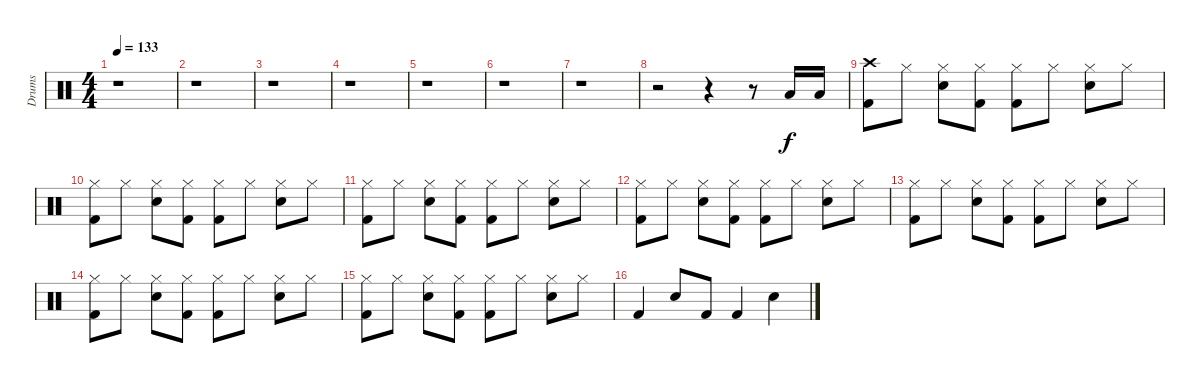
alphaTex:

\track ("Drums" "Drums") {instrument percussion}
\staff {score}
\articulation defaults
\ts (4 4)
\tempo 133
\clef neutral
\ks c
r.1{dy f} |
r.1 |
r.1 |
r.1 |
r.1 |
r.1 |
r.1 |
r.2 r.4 r.8 "Low Tom (hit)".16 "Low Tom (hit)".16 |
("Kick (hit) 2" "Crash high (hit)").8 "Hi-Hat (closed)".8 ("Snare (hit) 2" "Hi-Hat (closed)").8 ("Kick (hit) 2" "Hi-Hat (closed)").8 ("Kick (hit) 2" "Hi-Hat (closed)").8 "Hi-Hat (closed)".8 ("Snare (hit) 2" "Hi-Hat (closed)").8 "Hi-Hat (closed)".8 |
("Kick (hit) 2" "Hi-Hat (closed)").8 "Hi-Hat (closed)".8 ("Snare (hit) 2" "Hi-Hat (closed)").8 ("Kick (hit) 2" "Hi-Hat (closed)").8 ("Kick (hit) 2" "Hi-Hat (closed)").8 "Hi-Hat (closed)".8 ("Snare (hit) 2" "Hi-Hat (closed)").8 "Hi-Hat (closed)".8 |
("Kick (hit) 2" "Hi-Hat (closed)").8 "Hi-Hat (closed)".8 ("Snare (hit) 2" "Hi-Hat (closed)").8 ("Kick (hit) 2" "Hi-Hat (closed)").8 ("Kick (hit) 2" "Hi-Hat (closed)").8 "Hi-Hat (closed)".8 ("Snare (hit) 2" "Hi-Hat (closed)").8 "Hi-Hat (closed)".8 |
("Kick (hit) 2" "Hi-Hat (closed)").8 "Hi-Hat (closed)".8 ("Snare (hit) 2" "Hi-Hat (closed)").8 ("Kick (hit) 2" "Hi-Hat (closed)").8 ("Kick (hit) 2" "Hi-Hat (closed)").8 "Hi-Hat (closed)".8 ("Snare (hit) 2" "Hi-Hat (closed)").8 "Hi-Hat (closed)".8 |
("Kick (hit) 2" "Hi-Hat (closed)").8 "Hi-Hat (closed)".8 ("Snare (hit) 2" "Hi-Hat (closed)").8 ("Kick (hit) 2" "Hi-Hat (closed)").8 ("Kick (hit) 2" "Hi-Hat (closed)").8 "Hi-Hat (closed)".8 ("Snare (hit) 2" "Hi-Hat (closed)").8 "Hi-Hat (closed)".8 |
("Kick (hit) 2" "Hi-Hat (closed)").8 "Hi-Hat (closed)".8 ("Snare (hit) 2" "Hi-Hat (closed)").8 ("Kick (hit) 2" "Hi-Hat (closed)").8 ("Kick (hit) 2" "Hi-Hat (closed)").8 "Hi-Hat (closed)".8 ("Snare (hit) 2" "Hi-Hat (closed)").8 "Hi-Hat (closed)".8 |
("Kick (hit) 2" "Hi-Hat (closed)").8 "Hi-Hat (closed)".8 ("Snare (hit) 2" "Hi-Hat (closed)").8 ("Kick (hit) 2" "Hi-Hat (closed)").8 ("Kick (hit) 2" "Hi-Hat (closed)").8 "Hi-Hat (closed)".8 ("Snare (hit) 2" "Hi-Hat (closed)").8 "Hi-Hat (closed)".8 |
"Kick (hit) 2".4 "Snare (hit) 2".8 "Kick (hit) 2".8 "Kick (hit) 2".4 "Snare (hit) 2".4
